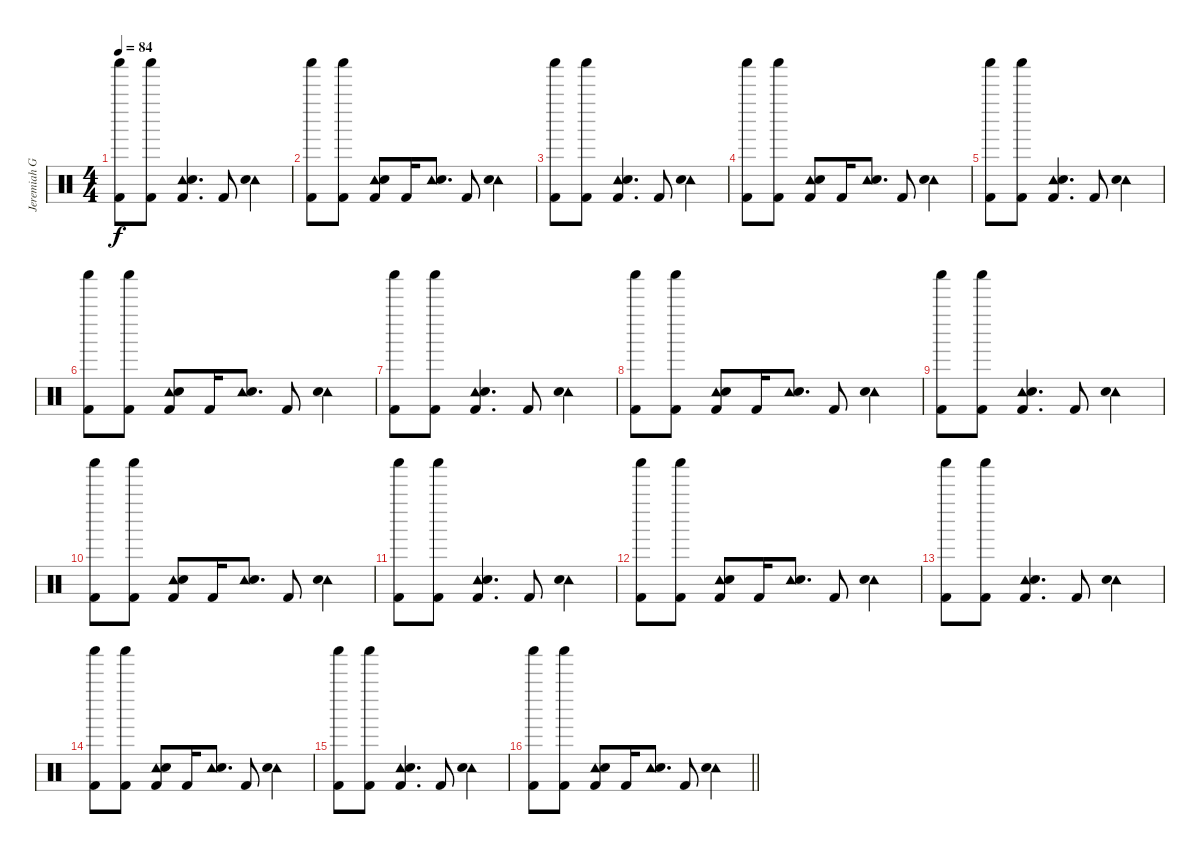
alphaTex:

\track ("Jeremiah Green" "Jeremiah G") {instrument percussion}
\staff {score}
\articulation defaults
\ts (4 4)
\tempo 84
\clef neutral
\ks c
("Shaker (hit)" "Kick (hit) 2").8{dy f} ("Shaker (hit)" "Kick (hit) 2").8 ("Tambourine (hit)" "Electric Snare (hit)" "Kick (hit) 2").4{d} "Kick (hit) 2".8 ("Tambourine (hit)" "Electric Snare (hit)").4 |
("Shaker (hit)" "Kick (hit) 2").8 ("Shaker (hit)" "Kick (hit) 2").8 ("Tambourine (hit)" "Electric Snare (hit)" "Kick (hit) 2").8 "Kick (hit) 2".16 ("Tambourine (hit)" "Electric Snare (hit)").8{d} "Kick (hit) 2".8 ("Tambourine (hit)" "Electric Snare (hit)").4 |
("Shaker (hit)" "Kick (hit) 2").8 ("Shaker (hit)" "Kick (hit) 2").8 ("Tambourine (hit)" "Electric Snare (hit)" "Kick (hit) 2").4{d} "Kick (hit) 2".8 ("Tambourine (hit)" "Electric Snare (hit)").4 |
("Shaker (hit)" "Kick (hit) 2").8 ("Shaker (hit)" "Kick (hit) 2").8 ("Tambourine (hit)" "Electric Snare (hit)" "Kick (hit) 2").8 "Kick (hit) 2".16 ("Tambourine (hit)" "Electric Snare (hit)").8{d} "Kick (hit) 2".8 ("Tambourine (hit)" "Electric Snare (hit)").4 |
("Shaker (hit)" "Kick (hit) 2").8 ("Shaker (hit)" "Kick (hit) 2").8 ("Tambourine (hit)" "Electric Snare (hit)" "Kick (hit) 2").4{d} "Kick (hit) 2".8 ("Tambourine (hit)" "Electric Snare (hit)").4 |
("Shaker (hit)" "Kick (hit) 2").8 ("Shaker (hit)" "Kick (hit) 2").8 ("Tambourine (hit)" "Electric Snare (hit)" "Kick (hit) 2").8 "Kick (hit) 2".16 ("Tambourine (hit)" "Electric Snare (hit)").8{d} "Kick (hit) 2".8 ("Tambourine (hit)" "Electric Snare (hit)").4 |
("Shaker (hit)" "Kick (hit) 2").8 ("Shaker (hit)" "Kick (hit) 2").8 ("Tambourine (hit)" "Electric Snare (hit)" "Kick (hit) 2").4{d} "Kick (hit) 2".8 ("Tambourine (hit)" "Electric Snare (hit)").4 |
("Shaker (hit)" "Kick (hit) 2").8 ("Shaker (hit)" "Kick (hit) 2").8 ("Tambourine (hit)" "Electric Snare (hit)" "Kick (hit) 2").8 "Kick (hit) 2".16 ("Tambourine (hit)" "Electric Snare (hit)").8{d} "Kick (hit) 2".8 ("Tambourine (hit)" "Electric Snare (hit)").4 |
("Shaker (hit)" "Kick (hit) 2").8 ("Shaker (hit)" "Kick (hit) 2").8 ("Tambourine (hit)" "Electric Snare (hit)" "Kick (hit) 2").4{d} "Kick (hit) 2".8 ("Tambourine (hit)" "Electric Snare (hit)").4 |
("Shaker (hit)" "Kick (hit) 2").8 ("Shaker (hit)" "Kick (hit) 2").8 ("Tambourine (hit)" "Electric Snare (hit)" "Kick (hit) 2").8 "Kick (hit) 2".16 ("Tambourine (hit)" "Electric Snare (hit)").8{d} "Kick (hit) 2".8 ("Tambourine (hit)" "Electric Snare (hit)").4 |
("Shaker (hit)" "Kick (hit) 2").8 ("Shaker (hit)" "Kick (hit) 2").8 ("Tambourine (hit)" "Electric Snare (hit)" "Kick (hit) 2").4{d} "Kick (hit) 2".8 ("Tambourine (hit)" "Electric Snare (hit)").4 |
("Shaker (hit)" "Kick (hit) 2").8 ("Shaker (hit)" "Kick (hit) 2").8 ("Tambourine (hit)" "Electric Snare (hit)" "Kick (hit) 2").8 "Kick (hit) 2".16 ("Tambourine (hit)" "Electric Snare (hit)").8{d} "Kick (hit) 2".8 ("Tambourine (hit)" "Electric Snare (hit)").4 |
("Shaker (hit)" "Kick (hit) 2").8 ("Shaker (hit)" "Kick (hit) 2").8 ("Tambourine (hit)" "Electric Snare (hit)" "Kick (hit) 2").4{d} "Kick (hit) 2".8 ("Tambourine (hit)" "Electric Snare (hit)").4 |
("Shaker (hit)" "Kick (hit) 2").8 ("Shaker (hit)" "Kick (hit) 2").8 ("Tambourine (hit)" "Electric Snare (hit)" "Kick (hit) 2").8 "Kick (hit) 2".16 ("Tambourine (hit)" "Electric Snare (hit)").8{d} "Kick (hit) 2".8 ("Tambourine (hit)" "Electric Snare (hit)").4 |
("Shaker (hit)" "Kick (hit) 2").8 ("Shaker (hit)" "Kick (hit) 2").8 ("Tambourine (hit)" "Electric Snare (hit)" "Kick (hit) 2").4{d} "Kick (hit) 2".8 ("Tambourine (hit)" "Electric Snare (hit)").4 |
\barLineRight lightlight
("Shaker (hit)" "Kick (hit) 2").8 ("Shaker (hit)" "Kick (hit) 2").8 ("Tambourine (hit)" "Electric Snare (hit)" "Kick (hit) 2").8 "Kick (hit) 2".16 ("Tambourine (hit)" "Electric Snare (hit)").8{d} "Kick (hit) 2".8 ("Tambourine (hit)" "Electric Snare (hit)").4
